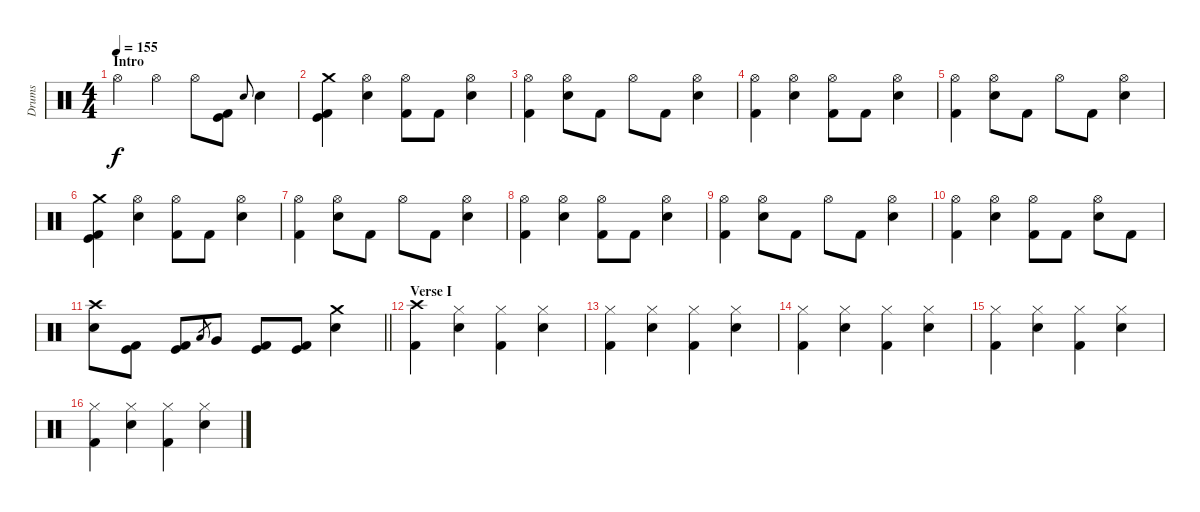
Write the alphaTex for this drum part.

\track ("Drums" "Drums") {instrument percussion}
\staff {score}
\articulation defaults
\ts (4 4)
\section ("" "Intro")
\tempo 155
\clef neutral
\ks c "Hi-Hat (open)".4{dy f} "Hi-Hat (open)".4 "Hi-Hat (open)".8
("Kick (hit)" "Kick (hit) 2").8 "Electric Snare (hit)".8{gr onbeat} "Electric Snare (hit)".4 |
("Crash medium (hit)" "Kick (hit) 2" "Kick (hit)").4 ("Hi-Hat (open)" "Snare (hit) 2").4 ("Hi-Hat (open)" "Kick (hit) 2").8 "Kick (hit) 2".8 ("Hi-Hat (open)" "Snare (hit) 2").4 |
("Hi-Hat (open)" "Kick (hit) 2").4 ("Hi-Hat (open)" "Electric Snare (hit)").8 "Kick (hit) 2".8 "Hi-Hat (open)".8 "Kick (hit) 2".8 ("Hi-Hat (open)" "Electric Snare (hit)").4 |
("Hi-Hat (open)" "Kick (hit) 2").4 ("Hi-Hat (open)" "Snare (hit) 2").4 ("Hi-Hat (open)" "Kick (hit) 2").8 "Kick (hit) 2".8 ("Hi-Hat (open)" "Snare (hit) 2").4 |
("Hi-Hat (open)" "Kick (hit) 2").4 ("Hi-Hat (open)" "Electric Snare (hit)").8 "Kick (hit) 2".8 "Hi-Hat (open)".8 "Kick (hit) 2".8 ("Hi-Hat (open)" "Electric Snare (hit)").4 |
("Crash medium (hit)" "Kick (hit) 2" "Kick (hit)").4 ("Hi-Hat (open)" "Electric Snare (hit)").4 ("Hi-Hat (open)" "Kick (hit) 2").8 "Kick (hit) 2".8 ("Hi-Hat (open)" "Electric Snare (hit)").4 |
("Hi-Hat (open)" "Kick (hit) 2").4 ("Hi-Hat (open)" "Electric Snare (hit)").8 "Kick (hit) 2".8 "Hi-Hat (open)".8 "Kick (hit) 2".8 ("Hi-Hat (open)" "Electric Snare (hit)").4 |
("Hi-Hat (open)" "Kick (hit) 2").4 ("Hi-Hat (open)" "Snare (hit) 2").4 ("Hi-Hat (open)" "Kick (hit) 2").8 "Kick (hit) 2".8 ("Hi-Hat (open)" "Snare (hit) 2").4 |
("Hi-Hat (open)" "Kick (hit) 2").4 ("Hi-Hat (open)" "Electric Snare (hit)").8 "Kick (hit) 2".8 "Hi-Hat (open)".8 "Kick (hit) 2".8 ("Hi-Hat (open)" "Electric Snare (hit)").4 |
("Hi-Hat (open)" "Kick (hit) 2").4 ("Hi-Hat (open)" "Electric Snare (hit)").4 ("Hi-Hat (open)" "Kick (hit) 2").8 "Kick (hit) 2".8 ("Hi-Hat (open)" "Electric Snare (hit)").8 "Kick (hit) 2".8 |
\barLineRight lightlight
("Crash high (hit)" "Electric Snare (hit)").8 ("Kick (hit) 2" "Kick (hit)").8 ("Kick (hit) 2" "Kick (hit)").8 "Low Tom (hit)".8{gr} "Very Low Tom (hit)".8 ("Kick (hit) 2" "Kick (hit)").8 ("Kick (hit) 2" "Kick (hit)").8 ("Crash medium (hit)" "Electric Snare (hit)").4 |
\section ("" "Verse I")
("Crash high (hit)" "Kick (hit) 2").4 ("Hi-Hat (closed)" "Electric Snare (hit)").4 ("Hi-Hat (closed)" "Kick (hit) 2").4 ("Hi-Hat (closed)" "Electric Snare (hit)").4 |
("Hi-Hat (closed)" "Kick (hit) 2").4 ("Hi-Hat (closed)" "Electric Snare (hit)").4 ("Hi-Hat (closed)" "Kick (hit) 2").4 ("Hi-Hat (closed)" "Electric Snare (hit)").4 |
("Hi-Hat (closed)" "Kick (hit) 2").4 ("Hi-Hat (closed)" "Electric Snare (hit)").4 ("Hi-Hat (closed)" "Kick (hit) 2").4 ("Hi-Hat (closed)" "Electric Snare (hit)").4 |
("Hi-Hat (closed)" "Kick (hit) 2").4 ("Hi-Hat (closed)" "Electric Snare (hit)").4 ("Hi-Hat (closed)" "Kick (hit) 2").4 ("Hi-Hat (closed)" "Electric Snare (hit)").4 |
("Hi-Hat (closed)" "Kick (hit) 2").4 ("Hi-Hat (closed)" "Electric Snare (hit)").4 ("Hi-Hat (closed)" "Kick (hit) 2").4 ("Hi-Hat (closed)" "Electric Snare (hit)").4
